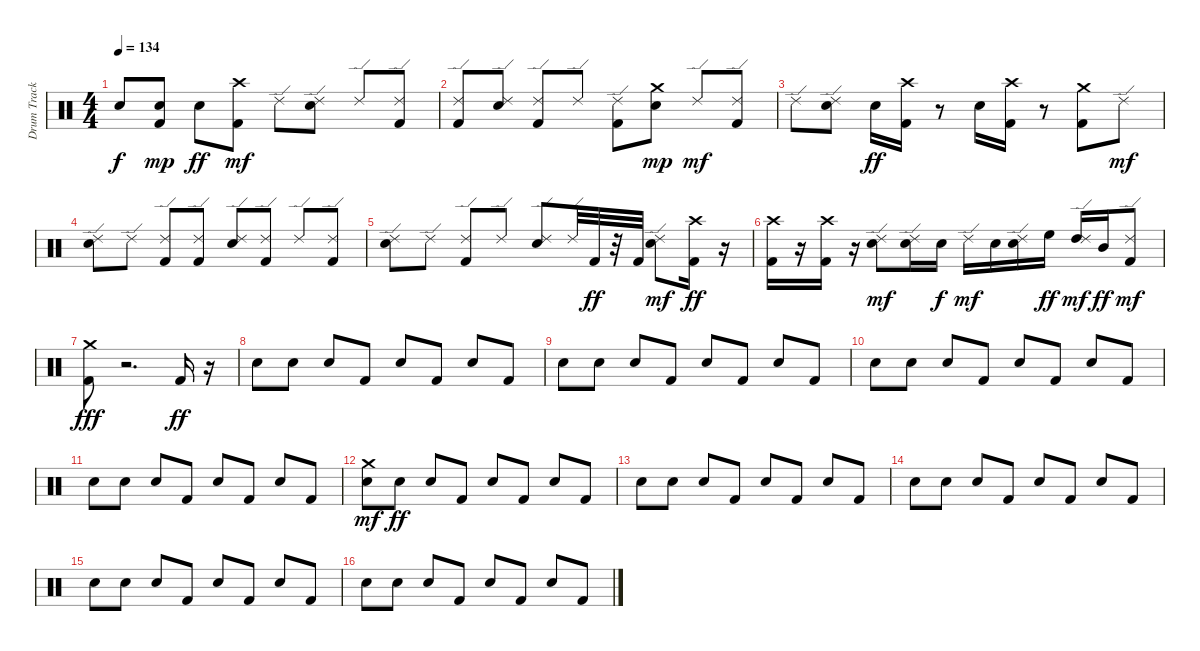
\track ("Drum Track" "Drum Track") {instrument percussion}
\staff {score}
\articulation defaults
\ts (4 4)
\tempo 134
\clef neutral
\ks c "Electric Snare (hit)".8{dy f}
("Kick (hit) 2" "Electric Snare (hit)").8{dy mp} "Electric Snare (hit)".8{dy ff} ("Kick (hit) 2" "Crash high (hit)").8{dy mf} "Ride (edge) 2".8 ("Electric Snare (hit)" "Ride (edge) 2").8 "Ride (edge) 2".8 ("Kick (hit) 2" "Ride (edge) 2").8 |
("Kick (hit) 2" "Ride (edge) 2").8 ("Electric Snare (hit)" "Ride (edge) 2").8 ("Kick (hit) 2" "Ride (edge) 2").8 "Ride (edge) 2".8 ("Kick (hit) 2" "Ride (edge) 2").8 ("Electric Snare (hit)" "Crash medium (hit)").8{dy mp} "Ride (edge) 2".8{dy mf} ("Kick (hit) 2" "Ride (edge) 2").8 |
"Ride (edge) 2".8 ("Electric Snare (hit)" "Ride (edge) 2").8 "Electric Snare (hit)".16{dy ff} ("Kick (hit) 2" "Crash high (hit)").16 r.8 "Electric Snare (hit)".16 ("Kick (hit) 2" "Crash high (hit)").16 r.8 ("Kick (hit) 2" "Crash medium (hit)").8 "Ride (edge) 2".8{dy mf} |
("Electric Snare (hit)" "Ride (edge) 2").8 "Ride (edge) 2".8 ("Kick (hit) 2" "Ride (edge) 2").8 ("Kick (hit) 2" "Ride (edge) 2").8 ("Electric Snare (hit)" "Ride (edge) 2").8 ("Kick (hit) 2" "Ride (edge) 2").8 "Ride (edge) 2".8 ("Kick (hit) 2" "Ride (edge) 2").8 |
("Electric Snare (hit)" "Ride (edge) 2").8 "Ride (edge) 2".8 ("Kick (hit) 2" "Ride (edge) 2").8 "Ride (edge) 2".8 ("Electric Snare (hit)" "Ride (edge) 2").8 "Ride (edge) 2".32 "Kick (hit) 2".32{dy ff} r.32 "Kick (hit) 2".32 ("Electric Snare (hit)" "Ride (edge) 2").8{dy mf} ("Kick (hit) 2" "Crash high (hit)").16{dy ff} r.16 |
("Kick (hit) 2" "Crash high (hit)").16 r.16 ("Kick (hit) 2" "Crash high (hit)").16 r.16 ("Electric Snare (hit)" "Ride (edge) 2").8{dy mf} ("Electric Snare (hit)" "Ride (edge) 2").16 "Electric Snare (hit)".16{dy f} "Ride (edge) 2".16{dy mf} "Electric Snare (hit)".16 ("Electric Snare (hit)" "Ride (edge) 2").16 "High Floor Tom (hit)".16{dy ff} ("High Tom (hit)" "Ride (edge) 2").16{dy mf} "Mid Tom (hit)".16{dy ff} ("Kick (hit) 2" "Ride (edge) 2").8{dy mf} |
("Kick (hit) 2" "Crash medium (hit)").8{dy fff} r.2{d} "Kick (hit) 2".16{dy ff} r.16 |
"Electric Snare (hit)".8 "Electric Snare (hit)".8 "Electric Snare (hit)".8 "Kick (hit) 2".8 "Electric Snare (hit)".8 "Kick (hit) 2".8 "Electric Snare (hit)".8 "Kick (hit) 2".8 |
"Electric Snare (hit)".8 "Electric Snare (hit)".8 "Electric Snare (hit)".8 "Kick (hit) 2".8 "Electric Snare (hit)".8 "Kick (hit) 2".8 "Electric Snare (hit)".8 "Kick (hit) 2".8 |
"Electric Snare (hit)".8 "Electric Snare (hit)".8 "Electric Snare (hit)".8 "Kick (hit) 2".8 "Electric Snare (hit)".8 "Kick (hit) 2".8 "Electric Snare (hit)".8 "Kick (hit) 2".8 |
"Electric Snare (hit)".8 "Electric Snare (hit)".8 "Electric Snare (hit)".8 "Kick (hit) 2".8 "Electric Snare (hit)".8 "Kick (hit) 2".8 "Electric Snare (hit)".8 "Kick (hit) 2".8 |
("Electric Snare (hit)" "Crash medium (hit)").8{dy mf} "Electric Snare (hit)".8{dy ff} "Electric Snare (hit)".8 "Kick (hit) 2".8 "Electric Snare (hit)".8 "Kick (hit) 2".8 "Electric Snare (hit)".8 "Kick (hit) 2".8 |
"Electric Snare (hit)".8 "Electric Snare (hit)".8 "Electric Snare (hit)".8 "Kick (hit) 2".8 "Electric Snare (hit)".8 "Kick (hit) 2".8 "Electric Snare (hit)".8 "Kick (hit) 2".8 |
"Electric Snare (hit)".8 "Electric Snare (hit)".8 "Electric Snare (hit)".8 "Kick (hit) 2".8 "Electric Snare (hit)".8 "Kick (hit) 2".8 "Electric Snare (hit)".8 "Kick (hit) 2".8 |
"Electric Snare (hit)".8 "Electric Snare (hit)".8 "Electric Snare (hit)".8 "Kick (hit) 2".8 "Electric Snare (hit)".8 "Kick (hit) 2".8 "Electric Snare (hit)".8 "Kick (hit) 2".8 |
"Electric Snare (hit)".8 "Electric Snare (hit)".8 "Electric Snare (hit)".8 "Kick (hit) 2".8 "Electric Snare (hit)".8 "Kick (hit) 2".8 "Electric Snare (hit)".8 "Kick (hit) 2".8
